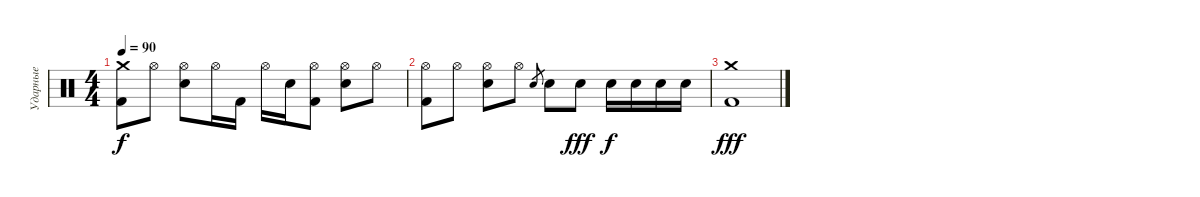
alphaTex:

\track ("Ударные" "Ударные") {instrument percussion}
\staff {score}
\articulation defaults
\ts (4 4)
\tempo 90
\clef neutral
\ks c
("Crash medium (hit)" "Kick (hit) 2").8{dy f} "Hi-Hat (open)".8 ("Hi-Hat (open)" "Snare (hit) 2").8 "Hi-Hat (open)".16 "Kick (hit) 2".16 "Hi-Hat (open)".16 "Snare (hit) 2".16 ("Hi-Hat (open)" "Kick (hit) 2").8 ("Hi-Hat (open)" "Snare (hit) 2").8 "Hi-Hat (open)".8 |
("Hi-Hat (open)" "Kick (hit) 2").8 "Hi-Hat (open)".8 ("Hi-Hat (open)" "Snare (hit) 2").8 "Hi-Hat (open)".8 "Snare (hit) 2".8{gr} "Snare (hit) 2".8 "Snare (hit) 2".8{dy fff} "Snare (hit) 2".16{dy f} "Snare (hit) 2".16 "Snare (hit) 2".16 "Snare (hit) 2".16 |
("Crash medium (hit)" "Kick (hit) 2").1{dy fff}
